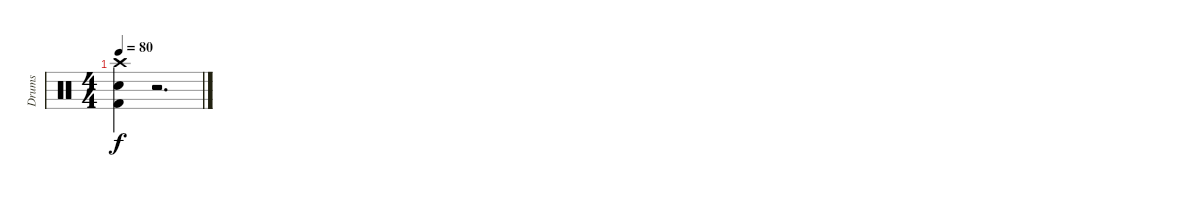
\track ("Drums" "Drums") {instrument percussion}
\staff {score}
\articulation defaults
\ts (4 4)
\tempo 80
\clef neutral
\ks c
("Crash high (hit)" "Electric Snare (hit)" "Kick (hit) 2").4{dy f} r.2{d}
